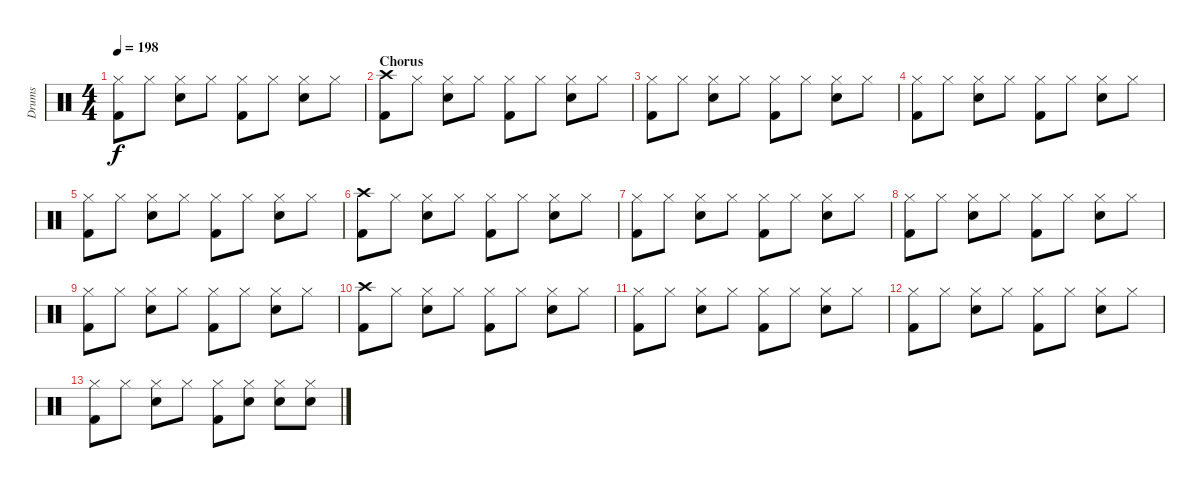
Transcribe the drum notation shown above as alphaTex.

\track ("Drums" "Drums") {instrument percussion}
\staff {score}
\articulation defaults
\ts (4 4)
\tempo 198
\clef neutral
\ks c
("Hi-Hat (closed)" "Kick (hit) 2").8{dy f} "Hi-Hat (closed)".8 ("Hi-Hat (closed)" "Snare (hit) 2").8 "Hi-Hat (closed)".8 ("Hi-Hat (closed)" "Kick (hit) 2").8 "Hi-Hat (closed)".8 ("Hi-Hat (closed)" "Snare (hit) 2").8 "Hi-Hat (closed)".8 |
\section ("" "Chorus")
("Crash high (hit)" "Kick (hit) 2").8 "Hi-Hat (closed)".8 ("Hi-Hat (closed)" "Snare (hit) 2").8 "Hi-Hat (closed)".8 ("Hi-Hat (closed)" "Kick (hit) 2").8 "Hi-Hat (closed)".8 ("Hi-Hat (closed)" "Snare (hit) 2").8 "Hi-Hat (closed)".8 |
("Hi-Hat (closed)" "Kick (hit) 2").8 "Hi-Hat (closed)".8 ("Hi-Hat (closed)" "Snare (hit) 2").8 "Hi-Hat (closed)".8 ("Hi-Hat (closed)" "Kick (hit) 2").8 "Hi-Hat (closed)".8 ("Hi-Hat (closed)" "Snare (hit) 2").8 "Hi-Hat (closed)".8 |
("Hi-Hat (closed)" "Kick (hit) 2").8 "Hi-Hat (closed)".8 ("Hi-Hat (closed)" "Snare (hit) 2").8 "Hi-Hat (closed)".8 ("Hi-Hat (closed)" "Kick (hit) 2").8 "Hi-Hat (closed)".8 ("Hi-Hat (closed)" "Snare (hit) 2").8 "Hi-Hat (closed)".8 |
("Hi-Hat (closed)" "Kick (hit) 2").8 "Hi-Hat (closed)".8 ("Hi-Hat (closed)" "Snare (hit) 2").8 "Hi-Hat (closed)".8 ("Hi-Hat (closed)" "Kick (hit) 2").8 "Hi-Hat (closed)".8 ("Hi-Hat (closed)" "Snare (hit) 2").8 "Hi-Hat (closed)".8 |
("Crash high (hit)" "Kick (hit) 2").8 "Hi-Hat (closed)".8 ("Hi-Hat (closed)" "Snare (hit) 2").8 "Hi-Hat (closed)".8 ("Hi-Hat (closed)" "Kick (hit) 2").8 "Hi-Hat (closed)".8 ("Hi-Hat (closed)" "Snare (hit) 2").8 "Hi-Hat (closed)".8 |
("Hi-Hat (closed)" "Kick (hit) 2").8 "Hi-Hat (closed)".8 ("Hi-Hat (closed)" "Snare (hit) 2").8 "Hi-Hat (closed)".8 ("Hi-Hat (closed)" "Kick (hit) 2").8 "Hi-Hat (closed)".8 ("Hi-Hat (closed)" "Snare (hit) 2").8 "Hi-Hat (closed)".8 |
("Hi-Hat (closed)" "Kick (hit) 2").8 "Hi-Hat (closed)".8 ("Hi-Hat (closed)" "Snare (hit) 2").8 "Hi-Hat (closed)".8 ("Hi-Hat (closed)" "Kick (hit) 2").8 "Hi-Hat (closed)".8 ("Hi-Hat (closed)" "Snare (hit) 2").8 "Hi-Hat (closed)".8 |
("Hi-Hat (closed)" "Kick (hit) 2").8 "Hi-Hat (closed)".8 ("Hi-Hat (closed)" "Snare (hit) 2").8 "Hi-Hat (closed)".8 ("Hi-Hat (closed)" "Kick (hit) 2").8 "Hi-Hat (closed)".8 ("Hi-Hat (closed)" "Snare (hit) 2").8 "Hi-Hat (closed)".8 |
("Crash high (hit)" "Kick (hit) 2").8 "Hi-Hat (closed)".8 ("Hi-Hat (closed)" "Snare (hit) 2").8 "Hi-Hat (closed)".8 ("Hi-Hat (closed)" "Kick (hit) 2").8 "Hi-Hat (closed)".8 ("Hi-Hat (closed)" "Snare (hit) 2").8 "Hi-Hat (closed)".8 |
("Hi-Hat (closed)" "Kick (hit) 2").8 "Hi-Hat (closed)".8 ("Hi-Hat (closed)" "Snare (hit) 2").8 "Hi-Hat (closed)".8 ("Hi-Hat (closed)" "Kick (hit) 2").8 "Hi-Hat (closed)".8 ("Hi-Hat (closed)" "Snare (hit) 2").8 "Hi-Hat (closed)".8 |
("Hi-Hat (closed)" "Kick (hit) 2").8 "Hi-Hat (closed)".8 ("Hi-Hat (closed)" "Snare (hit) 2").8 "Hi-Hat (closed)".8 ("Hi-Hat (closed)" "Kick (hit) 2").8 "Hi-Hat (closed)".8 ("Hi-Hat (closed)" "Snare (hit) 2").8 "Hi-Hat (closed)".8 |
("Hi-Hat (closed)" "Kick (hit) 2").8 "Hi-Hat (closed)".8 ("Hi-Hat (closed)" "Snare (hit) 2").8 "Hi-Hat (closed)".8 ("Hi-Hat (closed)" "Kick (hit) 2").8 ("Hi-Hat (closed)" "Snare (hit) 2").8 ("Hi-Hat (closed)" "Snare (hit) 2").8 ("Hi-Hat (closed)" "Snare (hit) 2").8
